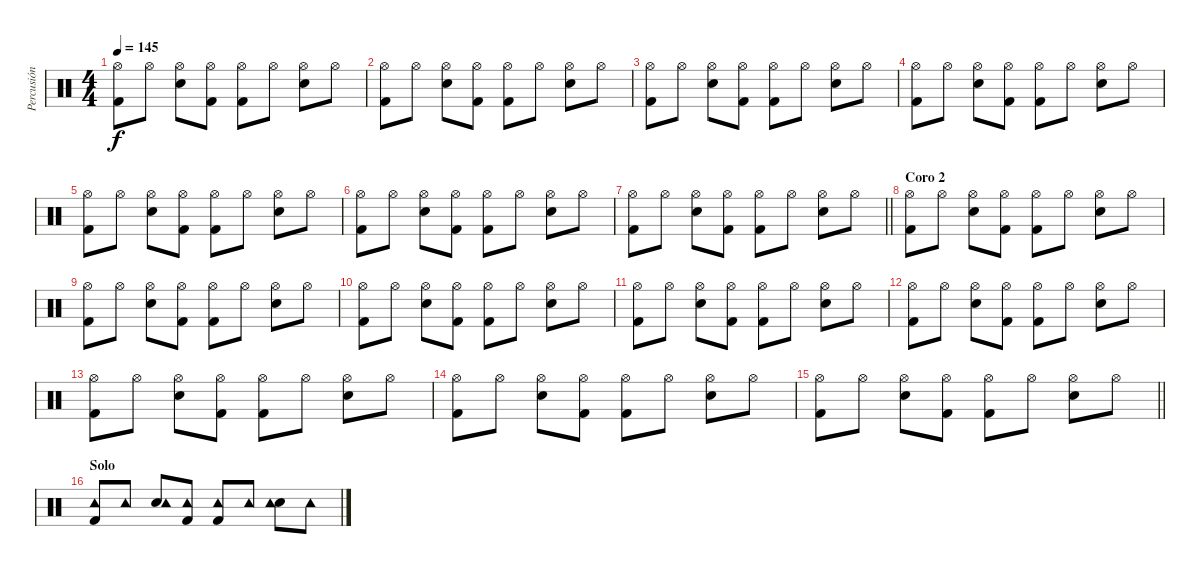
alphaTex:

\track ("Percusión" "Percusión") {instrument percussion}
\staff {score}
\articulation defaults
\ts (4 4)
\tempo 145
\clef neutral
\ks c
("Kick (hit) 2" "Hi-Hat (open)").8{dy f} "Hi-Hat (open)".8 ("Electric Snare (hit)" "Hi-Hat (open)").8 ("Kick (hit) 2" "Hi-Hat (open)").8 ("Kick (hit) 2" "Hi-Hat (open)").8 "Hi-Hat (open)".8 ("Electric Snare (hit)" "Hi-Hat (open)").8 "Hi-Hat (open)".8 |
("Kick (hit) 2" "Hi-Hat (open)").8 "Hi-Hat (open)".8 ("Electric Snare (hit)" "Hi-Hat (open)").8 ("Kick (hit) 2" "Hi-Hat (open)").8 ("Kick (hit) 2" "Hi-Hat (open)").8 "Hi-Hat (open)".8 ("Electric Snare (hit)" "Hi-Hat (open)").8 "Hi-Hat (open)".8 |
("Kick (hit) 2" "Hi-Hat (open)").8 "Hi-Hat (open)".8 ("Electric Snare (hit)" "Hi-Hat (open)").8 ("Kick (hit) 2" "Hi-Hat (open)").8 ("Kick (hit) 2" "Hi-Hat (open)").8 "Hi-Hat (open)".8 ("Electric Snare (hit)" "Hi-Hat (open)").8 "Hi-Hat (open)".8 |
("Kick (hit) 2" "Hi-Hat (open)").8 "Hi-Hat (open)".8 ("Electric Snare (hit)" "Hi-Hat (open)").8 ("Kick (hit) 2" "Hi-Hat (open)").8 ("Kick (hit) 2" "Hi-Hat (open)").8 "Hi-Hat (open)".8 ("Electric Snare (hit)" "Hi-Hat (open)").8 "Hi-Hat (open)".8 |
("Kick (hit) 2" "Hi-Hat (open)").8 "Hi-Hat (open)".8 ("Electric Snare (hit)" "Hi-Hat (open)").8 ("Kick (hit) 2" "Hi-Hat (open)").8 ("Kick (hit) 2" "Hi-Hat (open)").8 "Hi-Hat (open)".8 ("Electric Snare (hit)" "Hi-Hat (open)").8 "Hi-Hat (open)".8 |
("Kick (hit) 2" "Hi-Hat (open)").8 "Hi-Hat (open)".8 ("Electric Snare (hit)" "Hi-Hat (open)").8 ("Kick (hit) 2" "Hi-Hat (open)").8 ("Kick (hit) 2" "Hi-Hat (open)").8 "Hi-Hat (open)".8 ("Electric Snare (hit)" "Hi-Hat (open)").8 "Hi-Hat (open)".8 |
\barLineRight lightlight
("Kick (hit) 2" "Hi-Hat (open)").8 "Hi-Hat (open)".8 ("Electric Snare (hit)" "Hi-Hat (open)").8 ("Kick (hit) 2" "Hi-Hat (open)").8 ("Kick (hit) 2" "Hi-Hat (open)").8 "Hi-Hat (open)".8 ("Electric Snare (hit)" "Hi-Hat (open)").8 "Hi-Hat (open)".8 |
\section ("" "Coro 2")
("Kick (hit) 2" "Hi-Hat (open)").8 "Hi-Hat (open)".8 ("Electric Snare (hit)" "Hi-Hat (open)").8 ("Kick (hit) 2" "Hi-Hat (open)").8 ("Kick (hit) 2" "Hi-Hat (open)").8 "Hi-Hat (open)".8 ("Electric Snare (hit)" "Hi-Hat (open)").8 "Hi-Hat (open)".8 |
("Kick (hit) 2" "Hi-Hat (open)").8 "Hi-Hat (open)".8 ("Electric Snare (hit)" "Hi-Hat (open)").8 ("Kick (hit) 2" "Hi-Hat (open)").8 ("Kick (hit) 2" "Hi-Hat (open)").8 "Hi-Hat (open)".8 ("Electric Snare (hit)" "Hi-Hat (open)").8 "Hi-Hat (open)".8 |
("Kick (hit) 2" "Hi-Hat (open)").8 "Hi-Hat (open)".8 ("Electric Snare (hit)" "Hi-Hat (open)").8 ("Kick (hit) 2" "Hi-Hat (open)").8 ("Kick (hit) 2" "Hi-Hat (open)").8 "Hi-Hat (open)".8 ("Electric Snare (hit)" "Hi-Hat (open)").8 "Hi-Hat (open)".8 |
("Kick (hit) 2" "Hi-Hat (open)").8 "Hi-Hat (open)".8 ("Electric Snare (hit)" "Hi-Hat (open)").8 ("Kick (hit) 2" "Hi-Hat (open)").8 ("Kick (hit) 2" "Hi-Hat (open)").8 "Hi-Hat (open)".8 ("Electric Snare (hit)" "Hi-Hat (open)").8 "Hi-Hat (open)".8 |
("Kick (hit) 2" "Hi-Hat (open)").8 "Hi-Hat (open)".8 ("Electric Snare (hit)" "Hi-Hat (open)").8 ("Kick (hit) 2" "Hi-Hat (open)").8 ("Kick (hit) 2" "Hi-Hat (open)").8 "Hi-Hat (open)".8 ("Electric Snare (hit)" "Hi-Hat (open)").8 "Hi-Hat (open)".8 |
("Kick (hit) 2" "Hi-Hat (open)").8 "Hi-Hat (open)".8 ("Electric Snare (hit)" "Hi-Hat (open)").8 ("Kick (hit) 2" "Hi-Hat (open)").8 ("Kick (hit) 2" "Hi-Hat (open)").8 "Hi-Hat (open)".8 ("Electric Snare (hit)" "Hi-Hat (open)").8 "Hi-Hat (open)".8 |
("Kick (hit) 2" "Hi-Hat (open)").8 "Hi-Hat (open)".8 ("Electric Snare (hit)" "Hi-Hat (open)").8 ("Kick (hit) 2" "Hi-Hat (open)").8 ("Kick (hit) 2" "Hi-Hat (open)").8 "Hi-Hat (open)".8 ("Electric Snare (hit)" "Hi-Hat (open)").8 "Hi-Hat (open)".8 |
\barLineRight lightlight
("Kick (hit) 2" "Hi-Hat (open)").8 "Hi-Hat (open)".8 ("Electric Snare (hit)" "Hi-Hat (open)").8 ("Kick (hit) 2" "Hi-Hat (open)").8 ("Kick (hit) 2" "Hi-Hat (open)").8 "Hi-Hat (open)".8 ("Electric Snare (hit)" "Hi-Hat (open)").8 "Hi-Hat (open)".8 |
\section ("" "Solo")
("Kick (hit) 2" "Tambourine (hit)").8 "Tambourine (hit)".8 ("Electric Snare (hit)" "Tambourine (hit)").8 ("Kick (hit) 2" "Tambourine (hit)").8 ("Kick (hit) 2" "Tambourine (hit)").8 "Tambourine (hit)".8 ("Electric Snare (hit)" "Tambourine (hit)").8 "Tambourine (hit)".8
